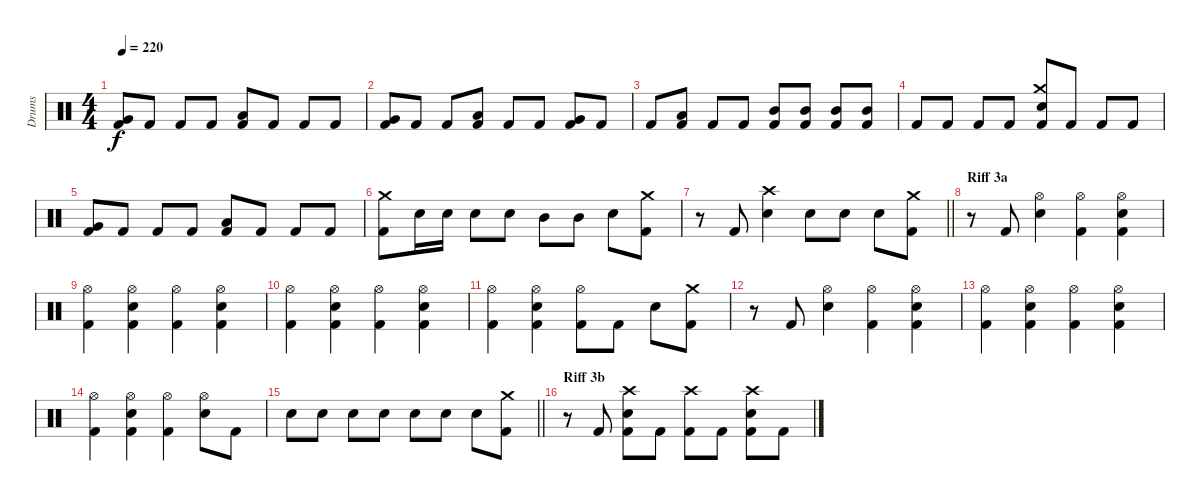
\track ("Drums" "Drums") {instrument percussion}
\staff {score}
\articulation defaults
\ts (4 4)
\tempo 220
\clef neutral
\ks c
("Very Low Tom (hit)" "Kick (hit) 2").8{dy f} "Kick (hit) 2".8 "Kick (hit) 2".8 "Kick (hit) 2".8 ("Low Tom (hit)" "Kick (hit) 2").8 "Kick (hit) 2".8 "Kick (hit) 2".8 "Kick (hit) 2".8 |
("Very Low Tom (hit)" "Kick (hit) 2").8 "Kick (hit) 2".8 "Kick (hit) 2".8 ("Low Tom (hit)" "Kick (hit) 2").8 "Kick (hit) 2".8 "Kick (hit) 2".8 ("Very Low Tom (hit)" "Kick (hit) 2").8 "Kick (hit) 2".8 |
"Kick (hit) 2".8 ("Low Tom (hit)" "Kick (hit) 2").8 "Kick (hit) 2".8 "Kick (hit) 2".8 ("Mid Tom (hit)" "Kick (hit) 2").8 ("Mid Tom (hit)" "Kick (hit) 2").8 ("Mid Tom (hit)" "Kick (hit) 2").8 ("Mid Tom (hit)" "Kick (hit) 2").8 |
"Kick (hit) 2".8 "Kick (hit) 2".8 "Kick (hit) 2".8 "Kick (hit) 2".8 ("Crash medium (hit)" "Electric Snare (hit)" "Kick (hit) 2").8 "Kick (hit) 2".8 "Kick (hit) 2".8 "Kick (hit) 2".8 |
("Very Low Tom (hit)" "Kick (hit) 2").8 "Kick (hit) 2".8 "Kick (hit) 2".8 "Kick (hit) 2".8 ("Low Tom (hit)" "Kick (hit) 2").8 "Kick (hit) 2".8 "Kick (hit) 2".8 "Kick (hit) 2".8 |
("Crash medium (hit)" "Kick (hit) 2").8 "Electric Snare (hit)".16 "Electric Snare (hit)".16 "Electric Snare (hit)".8 "Electric Snare (hit)".8 "Mid Tom (hit)".8 "Mid Tom (hit)".8 "Electric Snare (hit)".8 ("Crash medium (hit)" "Kick (hit) 2").8 |
\barLineRight lightlight
r.8 "Kick (hit) 2".8 ("Crash high (hit)" "Electric Snare (hit)").4 "Electric Snare (hit)".8 "Electric Snare (hit)".8 "Electric Snare (hit)".8 ("Crash medium (hit)" "Kick (hit) 2").8 |
\section ("" "Riff 3a")
r.8 "Kick (hit) 2".8 ("Electric Snare (hit)" "Hi-Hat (open)").4 ("Kick (hit) 2" "Hi-Hat (open)").4 ("Kick (hit) 2" "Electric Snare (hit)" "Hi-Hat (open)").4 |
("Kick (hit) 2" "Hi-Hat (open)").4 ("Kick (hit) 2" "Electric Snare (hit)" "Hi-Hat (open)").4 ("Kick (hit) 2" "Hi-Hat (open)").4 ("Kick (hit) 2" "Electric Snare (hit)" "Hi-Hat (open)").4 |
("Kick (hit) 2" "Hi-Hat (open)").4 ("Kick (hit) 2" "Electric Snare (hit)" "Hi-Hat (open)").4 ("Kick (hit) 2" "Hi-Hat (open)").4 ("Kick (hit) 2" "Electric Snare (hit)" "Hi-Hat (open)").4 |
("Kick (hit) 2" "Hi-Hat (open)").4 ("Kick (hit) 2" "Electric Snare (hit)" "Hi-Hat (open)").4 ("Kick (hit) 2" "Hi-Hat (open)").8 "Kick (hit) 2".8 "Electric Snare (hit)".8 ("Kick (hit) 2" "Crash medium (hit)").8 |
r.8 "Kick (hit) 2".8 ("Electric Snare (hit)" "Hi-Hat (open)").4 ("Kick (hit) 2" "Hi-Hat (open)").4 ("Kick (hit) 2" "Electric Snare (hit)" "Hi-Hat (open)").4 |
("Kick (hit) 2" "Hi-Hat (open)").4 ("Kick (hit) 2" "Electric Snare (hit)" "Hi-Hat (open)").4 ("Kick (hit) 2" "Hi-Hat (open)").4 ("Kick (hit) 2" "Electric Snare (hit)" "Hi-Hat (open)").4 |
("Kick (hit) 2" "Hi-Hat (open)").4 ("Kick (hit) 2" "Electric Snare (hit)" "Hi-Hat (open)").4 ("Kick (hit) 2" "Hi-Hat (open)").4 ("Electric Snare (hit)" "Hi-Hat (open)").8 "Kick (hit) 2".8 |
\barLineRight lightlight "Electric Snare (hit)".8 "Electric Snare (hit)".8 "Electric Snare (hit)".8 "Electric Snare (hit)".8 "Electric Snare (hit)".8 "Electric Snare (hit)".8 "Electric Snare (hit)".8
("Kick (hit) 2" "Crash medium (hit)").8 |
\section ("" "Riff 3b")
r.8 "Kick (hit) 2".8 ("Crash high (hit)" "Electric Snare (hit)" "Kick (hit) 2").8 "Kick (hit) 2".8 ("Crash high (hit)" "Kick (hit) 2").8 "Kick (hit) 2".8 ("Electric Snare (hit)" "Crash high (hit)" "Kick (hit) 2").8 "Kick (hit) 2".8
